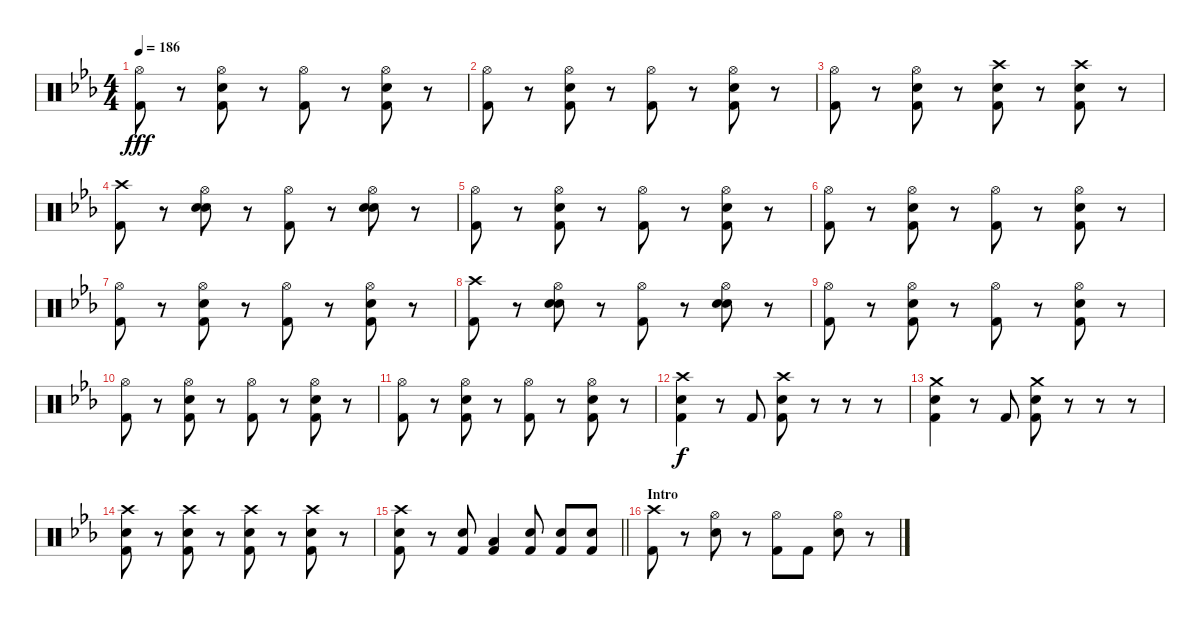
\track "" {instrument percussion}
\staff {score}
\articulation defaults
\ts (4 4)
\tempo 186
\clef neutral
\ks eb
("Hi-Hat (open)" "Kick (hit) 2").8{dy fff} r.8 ("Hi-Hat (open)" "Snare (hit) 2" "Kick (hit) 2").8 r.8 ("Hi-Hat (open)" "Kick (hit) 2").8 r.8 ("Hi-Hat (open)" "Snare (hit) 2" "Kick (hit) 2").8 r.8 |
("Hi-Hat (open)" "Kick (hit) 2").8 r.8 ("Hi-Hat (open)" "Snare (hit) 2" "Kick (hit) 2").8 r.8 ("Hi-Hat (open)" "Kick (hit) 2").8 r.8 ("Hi-Hat (open)" "Snare (hit) 2" "Kick (hit) 2").8 r.8 |
("Hi-Hat (open)" "Kick (hit) 2").8 r.8 ("Hi-Hat (open)" "Snare (hit) 2" "Kick (hit) 2").8 r.8 ("Crash high (hit)" "Snare (hit) 2" "Kick (hit) 2").8 r.8 ("Crash high (hit)" "Snare (hit) 2" "Kick (hit) 2").8 r.8 |
("Crash high (hit)" "Kick (hit) 2").8 r.8 ("Hi-Hat (open)" "Snare (hit) 2" "Snare (hit) 2").8 r.8 ("Hi-Hat (open)" "Kick (hit) 2").8 r.8 ("Hi-Hat (open)" "Snare (hit) 2" "Snare (hit) 2").8 r.8 |
("Hi-Hat (open)" "Kick (hit) 2").8 r.8 ("Hi-Hat (open)" "Snare (hit) 2" "Kick (hit) 2").8 r.8 ("Hi-Hat (open)" "Kick (hit) 2").8 r.8 ("Hi-Hat (open)" "Snare (hit) 2" "Kick (hit) 2").8 r.8 |
("Hi-Hat (open)" "Kick (hit) 2").8 r.8 ("Hi-Hat (open)" "Snare (hit) 2" "Kick (hit) 2").8 r.8 ("Hi-Hat (open)" "Kick (hit) 2").8 r.8 ("Hi-Hat (open)" "Snare (hit) 2" "Kick (hit) 2").8 r.8 |
("Hi-Hat (open)" "Kick (hit) 2").8 r.8 ("Hi-Hat (open)" "Snare (hit) 2" "Kick (hit) 2").8 r.8 ("Hi-Hat (open)" "Kick (hit) 2").8 r.8 ("Hi-Hat (open)" "Snare (hit) 2" "Kick (hit) 2").8 r.8 |
("Crash high (hit)" "Kick (hit) 2").8 r.8 ("Hi-Hat (open)" "Snare (hit) 2" "Snare (hit) 2").8 r.8 ("Hi-Hat (open)" "Kick (hit) 2").8 r.8 ("Hi-Hat (open)" "Snare (hit) 2" "Snare (hit) 2").8 r.8 |
("Hi-Hat (open)" "Kick (hit) 2").8 r.8 ("Hi-Hat (open)" "Snare (hit) 2" "Kick (hit) 2").8 r.8 ("Hi-Hat (open)" "Kick (hit) 2").8 r.8 ("Hi-Hat (open)" "Snare (hit) 2" "Kick (hit) 2").8 r.8 |
("Hi-Hat (open)" "Kick (hit) 2").8 r.8 ("Hi-Hat (open)" "Snare (hit) 2" "Kick (hit) 2").8 r.8 ("Hi-Hat (open)" "Kick (hit) 2").8 r.8 ("Hi-Hat (open)" "Snare (hit) 2" "Kick (hit) 2").8 r.8 |
("Hi-Hat (open)" "Kick (hit) 2").8 r.8 ("Hi-Hat (open)" "Snare (hit) 2" "Kick (hit) 2").8 r.8 ("Hi-Hat (open)" "Kick (hit) 2").8 r.8 ("Hi-Hat (open)" "Snare (hit) 2" "Kick (hit) 2").8 r.8 |
("Crash high (hit)" "Snare (hit) 2" "Kick (hit) 2").4{dy f} r.8 "Kick (hit) 2".8 ("Crash high (hit)" "Snare (hit) 2" "Kick (hit) 2").8 r.8 r.8 r.8 |
("Crash medium (hit)" "Snare (hit) 2" "Kick (hit) 2").4 r.8 "Kick (hit) 2".8 ("Crash medium (hit)" "Snare (hit) 2" "Kick (hit) 2").8 r.8 r.8 r.8 |
("Crash high (hit)" "Snare (hit) 2" "Kick (hit) 2").8 r.8 ("Crash high (hit)" "Snare (hit) 2" "Kick (hit) 2").8 r.8 ("Crash high (hit)" "Snare (hit) 2" "Kick (hit) 2").8 r.8 ("Crash high (hit)" "Snare (hit) 2" "Kick (hit) 2").8 r.8 |
\barLineRight lightlight
("Crash high (hit)" "Snare (hit) 2" "Kick (hit) 2").8 r.8 ("Snare (hit) 2" "Kick (hit) 2").8 ("Low Tom (hit)" "Kick (hit) 2").4 ("Snare (hit) 2" "Kick (hit) 2").8 ("Snare (hit) 2" "Kick (hit) 2").8 ("Snare (hit) 2" "Kick (hit) 2").8 |
\section ("" "Intro")
("Crash high (hit)" "Kick (hit) 2").8 r.8 ("Hi-Hat (open)" "Snare (hit) 2").8 r.8 ("Hi-Hat (open)" "Kick (hit) 2").8 "Kick (hit) 2".8 ("Hi-Hat (open)" "Snare (hit) 2").8 r.8
